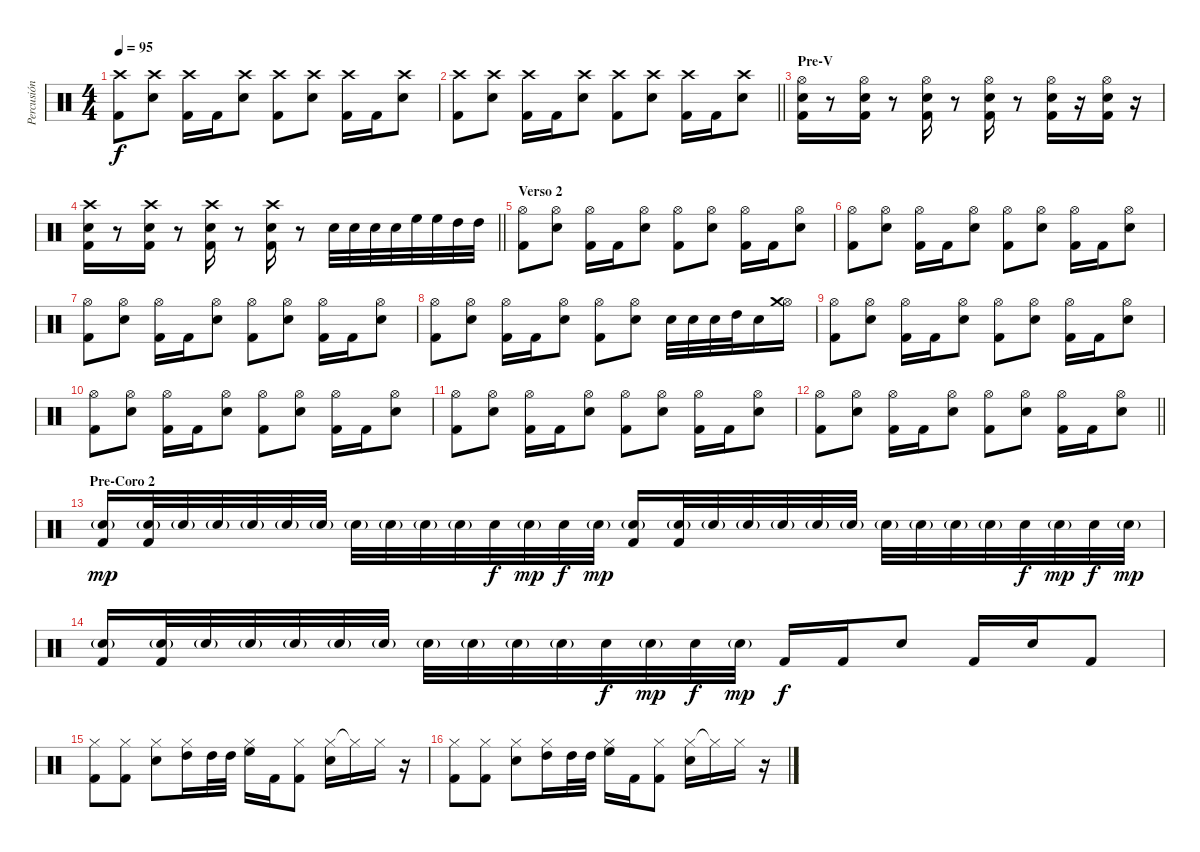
\track ("Percusión" "Percusión") {instrument percussion}
\staff {score}
\articulation defaults
\ts (4 4)
\tempo 95
\clef neutral
\ks c
("Crash high (hit)" "Kick (hit) 2").8{dy f} ("Crash high (hit)" "Electric Snare (hit)").8 ("Crash high (hit)" "Kick (hit) 2").16 "Kick (hit) 2".16 ("Crash high (hit)" "Electric Snare (hit)").8 ("Crash high (hit)" "Kick (hit) 2").8 ("Crash high (hit)" "Electric Snare (hit)").8 ("Crash high (hit)" "Kick (hit) 2").16 "Kick (hit) 2".16 ("Crash high (hit)" "Electric Snare (hit)").8 |
\barLineRight lightlight
("Crash high (hit)" "Kick (hit) 2").8 ("Crash high (hit)" "Electric Snare (hit)").8 ("Crash high (hit)" "Kick (hit) 2").16 "Kick (hit) 2".16 ("Crash high (hit)" "Electric Snare (hit)").8 ("Crash high (hit)" "Kick (hit) 2").8 ("Crash high (hit)" "Electric Snare (hit)").8 ("Crash high (hit)" "Kick (hit) 2").16 "Kick (hit) 2".16 ("Crash high (hit)" "Electric Snare (hit)").8 |
\section ("" "Pre-V")
("Hi-Hat (open)" "Electric Snare (hit)" "Kick (hit) 2").16 r.8 ("Hi-Hat (open)" "Electric Snare (hit)" "Kick (hit) 2").16 r.8 ("Hi-Hat (open)" "Electric Snare (hit)" "Kick (hit) 2").16 r.8 ("Hi-Hat (open)" "Electric Snare (hit)" "Kick (hit) 2").16 r.8 ("Hi-Hat (open)" "Electric Snare (hit)" "Kick (hit) 2").16 r.16 ("Hi-Hat (open)" "Electric Snare (hit)" "Kick (hit) 2").16 r.16 |
\barLineRight lightlight
("Crash high (hit)" "Electric Snare (hit)" "Kick (hit) 2").16 r.8 ("Crash high (hit)" "Electric Snare (hit)" "Kick (hit) 2").16 r.8 ("Crash high (hit)" "Electric Snare (hit)" "Kick (hit) 2").16 r.8 ("Crash high (hit)" "Electric Snare (hit)" "Kick (hit) 2").16 r.8 "Electric Snare (hit)".32 "Electric Snare (hit)".32 "Electric Snare (hit)".32 "Electric Snare (hit)".32 "High Floor Tom (hit)".32 "High Floor Tom (hit)".32 "High Tom (hit)".32 "High Tom (hit)".32 |
\section ("" "Verso 2")
("Hi-Hat (open)" "Kick (hit) 2").8 ("Hi-Hat (open)" "Electric Snare (hit)").8 ("Hi-Hat (open)" "Kick (hit) 2").16 "Kick (hit) 2".16 ("Hi-Hat (open)" "Electric Snare (hit)").8 ("Hi-Hat (open)" "Kick (hit) 2").8 ("Hi-Hat (open)" "Electric Snare (hit)").8 ("Hi-Hat (open)" "Kick (hit) 2").16 "Kick (hit) 2".16 ("Hi-Hat (open)" "Electric Snare (hit)").8 |
("Hi-Hat (open)" "Kick (hit) 2").8 ("Hi-Hat (open)" "Electric Snare (hit)").8 ("Hi-Hat (open)" "Kick (hit) 2").16 "Kick (hit) 2".16 ("Hi-Hat (open)" "Electric Snare (hit)").8 ("Hi-Hat (open)" "Kick (hit) 2").8 ("Hi-Hat (open)" "Electric Snare (hit)").8 ("Hi-Hat (open)" "Kick (hit) 2").16 "Kick (hit) 2".16 ("Hi-Hat (open)" "Electric Snare (hit)").8 |
("Hi-Hat (open)" "Kick (hit) 2").8 ("Hi-Hat (open)" "Electric Snare (hit)").8 ("Hi-Hat (open)" "Kick (hit) 2").16 "Kick (hit) 2".16 ("Hi-Hat (open)" "Electric Snare (hit)").8 ("Hi-Hat (open)" "Kick (hit) 2").8 ("Hi-Hat (open)" "Electric Snare (hit)").8 ("Hi-Hat (open)" "Kick (hit) 2").16 "Kick (hit) 2".16 ("Hi-Hat (open)" "Electric Snare (hit)").8 |
("Hi-Hat (open)" "Kick (hit) 2").8 ("Hi-Hat (open)" "Electric Snare (hit)").8 ("Hi-Hat (open)" "Kick (hit) 2").16 "Kick (hit) 2".16 ("Hi-Hat (open)" "Electric Snare (hit)").8 ("Hi-Hat (open)" "Kick (hit) 2").8 ("Hi-Hat (open)" "Electric Snare (hit)").8 "Electric Snare (hit)".32 "Electric Snare (hit)".32 "Electric Snare (hit)".32 "High Tom (hit)".32 "Electric Snare (hit)".16 ("Hi-Hat (open)" "Crash medium (hit)").16 |
("Hi-Hat (open)" "Kick (hit) 2").8 ("Hi-Hat (open)" "Electric Snare (hit)").8 ("Hi-Hat (open)" "Kick (hit) 2").16 "Kick (hit) 2".16 ("Hi-Hat (open)" "Electric Snare (hit)").8 ("Hi-Hat (open)" "Kick (hit) 2").8 ("Hi-Hat (open)" "Electric Snare (hit)").8 ("Hi-Hat (open)" "Kick (hit) 2").16 "Kick (hit) 2".16 ("Hi-Hat (open)" "Electric Snare (hit)").8 |
("Hi-Hat (open)" "Kick (hit) 2").8 ("Hi-Hat (open)" "Electric Snare (hit)").8 ("Hi-Hat (open)" "Kick (hit) 2").16 "Kick (hit) 2".16 ("Hi-Hat (open)" "Electric Snare (hit)").8 ("Hi-Hat (open)" "Kick (hit) 2").8 ("Hi-Hat (open)" "Electric Snare (hit)").8 ("Hi-Hat (open)" "Kick (hit) 2").16 "Kick (hit) 2".16 ("Hi-Hat (open)" "Electric Snare (hit)").8 |
("Hi-Hat (open)" "Kick (hit) 2").8 ("Hi-Hat (open)" "Electric Snare (hit)").8 ("Hi-Hat (open)" "Kick (hit) 2").16 "Kick (hit) 2".16 ("Hi-Hat (open)" "Electric Snare (hit)").8 ("Hi-Hat (open)" "Kick (hit) 2").8 ("Hi-Hat (open)" "Electric Snare (hit)").8 ("Hi-Hat (open)" "Kick (hit) 2").16 "Kick (hit) 2".16 ("Hi-Hat (open)" "Electric Snare (hit)").8 |
\barLineRight lightlight
("Hi-Hat (open)" "Kick (hit) 2").8 ("Hi-Hat (open)" "Electric Snare (hit)").8 ("Hi-Hat (open)" "Kick (hit) 2").16 "Kick (hit) 2".16 ("Hi-Hat (open)" "Electric Snare (hit)").8 ("Hi-Hat (open)" "Kick (hit) 2").8 ("Hi-Hat (open)" "Electric Snare (hit)").8 ("Hi-Hat (open)" "Kick (hit) 2").16 "Kick (hit) 2".16 ("Hi-Hat (open)" "Electric Snare (hit)").8 |
\section ("" "Pre-Coro 2")
("Electric Snare (hit)"{g} "Kick (hit) 2").16{dy mp} ("Electric Snare (hit)"{g} "Kick (hit) 2").32 "Electric Snare (hit)"{g}.32 "Electric Snare (hit)"{g}.32 "Electric Snare (hit)"{g}.32 "Electric Snare (hit)"{g}.32 "Electric Snare (hit)"{g}.32 "Electric Snare (hit)"{g}.32 "Electric Snare (hit)"{g}.32 "Electric Snare (hit)"{g}.32 "Electric Snare (hit)"{g}.32 "Electric Snare (hit)".32{dy f} "Electric Snare (hit)"{g}.32{dy mp} "Electric Snare (hit)".32{dy f} "Electric Snare (hit)"{g}.32{dy mp} ("Electric Snare (hit)"{g} "Kick (hit) 2").16 ("Electric Snare (hit)"{g} "Kick (hit) 2").32 "Electric Snare (hit)"{g}.32 "Electric Snare (hit)"{g}.32 "Electric Snare (hit)"{g}.32 "Electric Snare (hit)"{g}.32 "Electric Snare (hit)"{g}.32 "Electric Snare (hit)"{g}.32 "Electric Snare (hit)"{g}.32 "Electric Snare (hit)"{g}.32 "Electric Snare (hit)"{g}.32 "Electric Snare (hit)".32{dy f} "Electric Snare (hit)"{g}.32{dy mp} "Electric Snare (hit)".32{dy f} "Electric Snare (hit)"{g}.32{dy mp} |
("Electric Snare (hit)"{g} "Kick (hit) 2").16 ("Electric Snare (hit)"{g} "Kick (hit) 2").32 "Electric Snare (hit)"{g}.32 "Electric Snare (hit)"{g}.32 "Electric Snare (hit)"{g}.32 "Electric Snare (hit)"{g}.32 "Electric Snare (hit)"{g}.32 "Electric Snare (hit)"{g}.32 "Electric Snare (hit)"{g}.32 "Electric Snare (hit)"{g}.32 "Electric Snare (hit)"{g}.32 "Electric Snare (hit)".32{dy f} "Electric Snare (hit)"{g}.32{dy mp} "Electric Snare (hit)".32{dy f} "Electric Snare (hit)"{g}.32{dy mp} "Kick (hit) 2".16{dy f} "Kick (hit) 2".16 "Electric Snare (hit)".8 "Kick (hit) 2".16 "Electric Snare (hit)".16 "Kick (hit) 2".8 |
("Hi-Hat (closed)" "Kick (hit) 2").8 ("Hi-Hat (closed)" "Kick (hit) 2").8 ("Hi-Hat (closed)" "Electric Snare (hit)").8 ("Hi-Hat (closed)" "High Tom (hit)").16 "High Tom (hit)".32 "High Tom (hit)".32 ("Hi-Hat (closed)" "High Floor Tom (hit)").16 "Kick (hit) 2".16 ("Hi-Hat (closed)" "Kick (hit) 2").8 ("Hi-Hat (closed)" "Electric Snare (hit)").16 "Hi-Hat (closed)"{t}.16 "Hi-Hat (closed)".16 r.16 |
("Hi-Hat (closed)" "Kick (hit) 2").8 ("Hi-Hat (closed)" "Kick (hit) 2").8 ("Hi-Hat (closed)" "Electric Snare (hit)").8 ("Hi-Hat (closed)" "High Tom (hit)").16 "High Tom (hit)".32 "High Tom (hit)".32 ("Hi-Hat (closed)" "High Floor Tom (hit)").16 "Kick (hit) 2".16 ("Hi-Hat (closed)" "Kick (hit) 2").8 ("Hi-Hat (closed)" "Electric Snare (hit)").16 "Hi-Hat (closed)"{t}.16 "Hi-Hat (closed)".16 r.16
